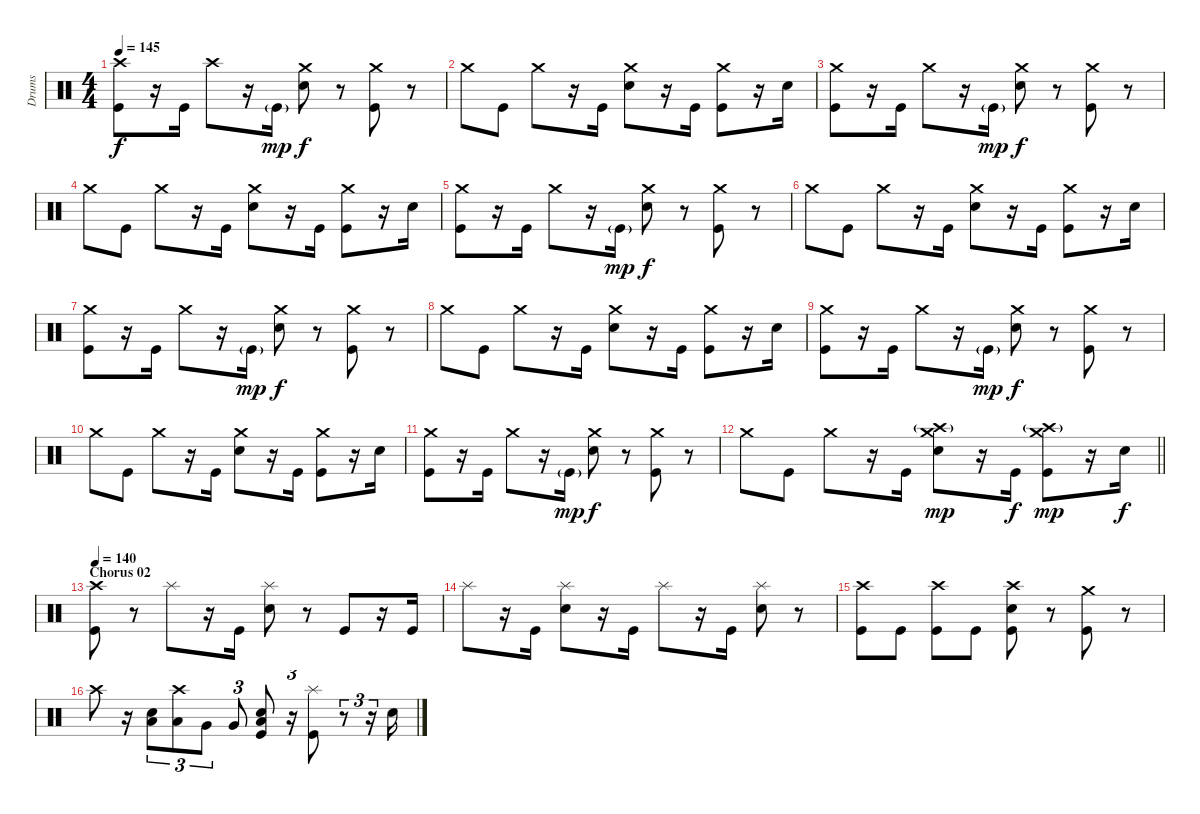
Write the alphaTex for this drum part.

\track ("Drums" "Drums") {instrument percussion}
\staff {score}
\articulation defaults
\ts (4 4)
\tempo 145
\clef neutral
\ks c
("Crash high (hit)" "Kick (hit)").8{dy f} r.16 "Kick (hit)".16 "Crash high (hit)".8 r.16 "Kick (hit)"{g}.16{dy mp} ("Crash medium (hit)" "Electric Snare (hit)").8{dy f} r.8 ("Crash medium (hit)" "Kick (hit)").8 r.8 |
"Crash medium (hit)".8 "Kick (hit)".8 "Crash medium (hit)".8 r.16 "Kick (hit)".16 ("Crash medium (hit)" "Electric Snare (hit)").8 r.16 "Kick (hit)".16 ("Crash medium (hit)" "Kick (hit)").8 r.16 "Electric Snare (hit)".16 |
("Crash medium (hit)" "Kick (hit)").8 r.16 "Kick (hit)".16 "Crash medium (hit)".8 r.16 "Kick (hit)"{g}.16{dy mp} ("Crash medium (hit)" "Electric Snare (hit)").8{dy f} r.8 ("Crash medium (hit)" "Kick (hit)").8 r.8 |
"Crash medium (hit)".8 "Kick (hit)".8 "Crash medium (hit)".8 r.16 "Kick (hit)".16 ("Crash medium (hit)" "Electric Snare (hit)").8 r.16 "Kick (hit)".16 ("Crash medium (hit)" "Kick (hit)").8 r.16 "Electric Snare (hit)".16 |
("Crash medium (hit)" "Kick (hit)").8 r.16 "Kick (hit)".16 "Crash medium (hit)".8 r.16 "Kick (hit)"{g}.16{dy mp} ("Crash medium (hit)" "Electric Snare (hit)").8{dy f} r.8 ("Crash medium (hit)" "Kick (hit)").8 r.8 |
"Crash medium (hit)".8 "Kick (hit)".8 "Crash medium (hit)".8 r.16 "Kick (hit)".16 ("Crash medium (hit)" "Electric Snare (hit)").8 r.16 "Kick (hit)".16 ("Crash medium (hit)" "Kick (hit)").8 r.16 "Electric Snare (hit)".16 |
("Crash medium (hit)" "Kick (hit)").8 r.16 "Kick (hit)".16 "Crash medium (hit)".8 r.16 "Kick (hit)"{g}.16{dy mp} ("Crash medium (hit)" "Electric Snare (hit)").8{dy f} r.8 ("Crash medium (hit)" "Kick (hit)").8 r.8 |
"Crash medium (hit)".8 "Kick (hit)".8 "Crash medium (hit)".8 r.16 "Kick (hit)".16 ("Crash medium (hit)" "Electric Snare (hit)").8 r.16 "Kick (hit)".16 ("Crash medium (hit)" "Kick (hit)").8 r.16 "Electric Snare (hit)".16 |
("Crash medium (hit)" "Kick (hit)").8 r.16 "Kick (hit)".16 "Crash medium (hit)".8 r.16 "Kick (hit)"{g}.16{dy mp} ("Crash medium (hit)" "Electric Snare (hit)").8{dy f} r.8 ("Crash medium (hit)" "Kick (hit)").8 r.8 |
"Crash medium (hit)".8 "Kick (hit)".8 "Crash medium (hit)".8 r.16 "Kick (hit)".16 ("Crash medium (hit)" "Electric Snare (hit)").8 r.16 "Kick (hit)".16 ("Crash medium (hit)" "Kick (hit)").8 r.16 "Electric Snare (hit)".16 |
("Crash medium (hit)" "Kick (hit)").8 r.16 "Kick (hit)".16 "Crash medium (hit)".8 r.16 "Kick (hit)"{g}.16{dy mp} ("Crash medium (hit)" "Electric Snare (hit)").8{dy f} r.8 ("Crash medium (hit)" "Kick (hit)").8 r.8 |
\barLineRight lightlight "Crash medium (hit)".8 "Kick (hit)".8 "Crash medium (hit)".8
r.16 "Kick (hit)".16 ("Crash medium (hit)" "Crash high (hit)"{g} "Electric Snare (hit)").8{dy mp} r.16 "Kick (hit)".16{dy f} ("Crash medium (hit)" "Crash high (hit)"{g} "Kick (hit)").8{dy mp} r.16 "Electric Snare (hit)".16{dy f} |
\section ("" "Chorus 02")
\tempo 140
("Crash high (hit)" "Kick (hit)").8 r.8 "Splash (hit)".8 r.16 "Kick (hit)".16 ("Splash (hit)" "Electric Snare (hit)").8 r.8 "Kick (hit)".8 r.16 "Kick (hit)".16 |
"Splash (hit)".8 r.16 "Kick (hit)".16 ("Splash (hit)" "Electric Snare (hit)").8 r.16 "Kick (hit)".16 "Splash (hit)".8 r.16 "Kick (hit)".16 ("Splash (hit)" "Electric Snare (hit)").8 r.8 |
("Crash high (hit)" "Kick (hit)").8 "Kick (hit)".8 ("Crash high (hit)" "Kick (hit)").8 "Kick (hit)".8 ("Crash high (hit)" "Electric Snare (hit)" "Kick (hit)").8 r.8 ("Crash medium (hit)" "Kick (hit)").8 r.8 |
"Crash high (hit)".8 r.16 ("Low Tom (hit)" "Electric Snare (hit)").8{tu (3 2)} ("Crash high (hit)" "Low Tom (hit)").8{tu (3 2)} "Very Low Tom (hit)".8{tu (3 2)} "Very Low Tom (hit)".8{tu (3 2)} ("Low Tom (hit)" "Snare (hit) 2" "Kick (hit)").8 r.16{tu (3 2)} ("Splash (hit)" "Kick (hit)").8 r.8{tu (3 2)} r.16{tu (3 2)} "Electric Snare (hit)".16
